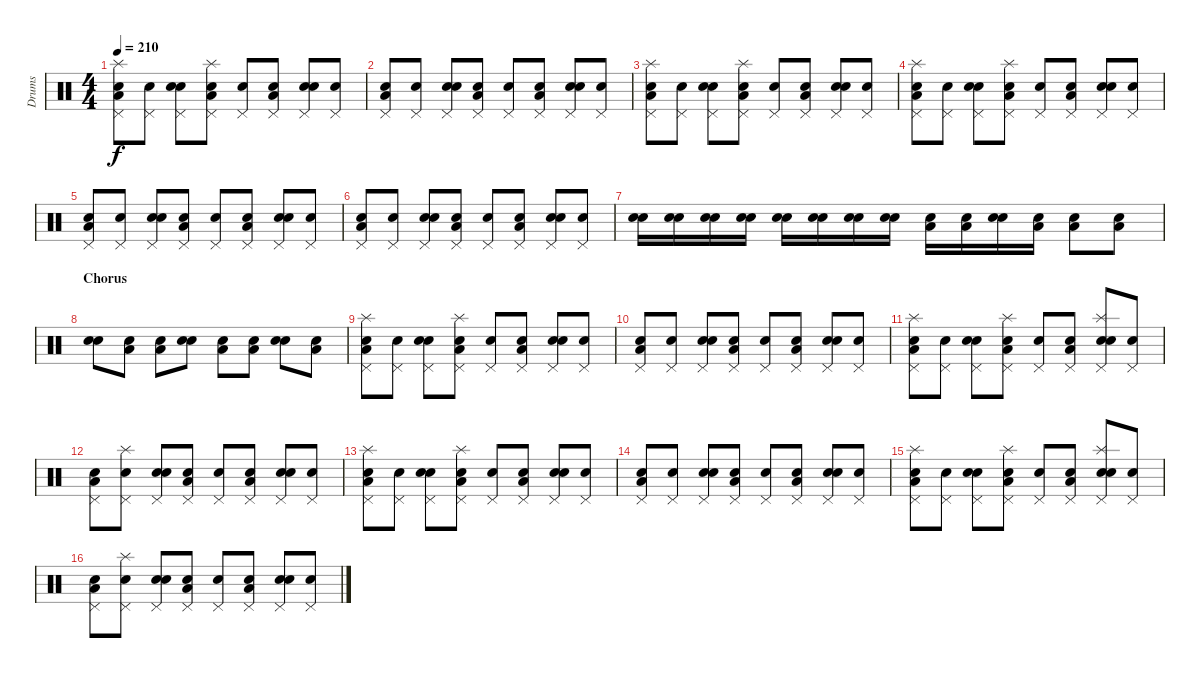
\track ("Drums" "Drums") {instrument percussion}
\staff {score}
\articulation defaults
\ts (4 4)
\tempo 210
\clef neutral
\ks c
("Snare (hit)" "Low Floor Tom (hit)" "Pedal Hi-Hat (hit)" "Splash (hit)").8{dy f} ("Snare (hit)" "Pedal Hi-Hat (hit)").8 ("Snare (hit)" "Electric Snare (hit)" "Pedal Hi-Hat (hit)").8 ("Snare (hit)" "Low Floor Tom (hit)" "Pedal Hi-Hat (hit)" "Splash (hit)").8 ("Snare (hit)" "Pedal Hi-Hat (hit)").8 ("Snare (hit)" "Low Floor Tom (hit)" "Pedal Hi-Hat (hit)").8 ("Snare (hit)" "Electric Snare (hit)" "Pedal Hi-Hat (hit)").8 ("Snare (hit)" "Pedal Hi-Hat (hit)").8 |
("Snare (hit)" "Low Floor Tom (hit)" "Pedal Hi-Hat (hit)").8 ("Snare (hit)" "Pedal Hi-Hat (hit)").8 ("Snare (hit)" "Electric Snare (hit)" "Pedal Hi-Hat (hit)").8 ("Snare (hit)" "Low Floor Tom (hit)" "Pedal Hi-Hat (hit)").8 ("Snare (hit)" "Pedal Hi-Hat (hit)").8 ("Snare (hit)" "Low Floor Tom (hit)" "Pedal Hi-Hat (hit)").8 ("Snare (hit)" "Electric Snare (hit)" "Pedal Hi-Hat (hit)").8 ("Snare (hit)" "Pedal Hi-Hat (hit)").8 |
("Snare (hit)" "Low Floor Tom (hit)" "Pedal Hi-Hat (hit)" "Splash (hit)").8 ("Snare (hit)" "Pedal Hi-Hat (hit)").8 ("Snare (hit)" "Electric Snare (hit)" "Pedal Hi-Hat (hit)").8 ("Snare (hit)" "Low Floor Tom (hit)" "Pedal Hi-Hat (hit)" "Splash (hit)").8 ("Snare (hit)" "Pedal Hi-Hat (hit)").8 ("Snare (hit)" "Low Floor Tom (hit)" "Pedal Hi-Hat (hit)").8 ("Snare (hit)" "Electric Snare (hit)" "Pedal Hi-Hat (hit)").8 ("Snare (hit)" "Pedal Hi-Hat (hit)").8 |
("Snare (hit)" "Low Floor Tom (hit)" "Pedal Hi-Hat (hit)" "Splash (hit)").8 ("Snare (hit)" "Pedal Hi-Hat (hit)").8 ("Snare (hit)" "Electric Snare (hit)" "Pedal Hi-Hat (hit)").8 ("Snare (hit)" "Low Floor Tom (hit)" "Pedal Hi-Hat (hit)" "Splash (hit)").8 ("Snare (hit)" "Pedal Hi-Hat (hit)").8 ("Snare (hit)" "Low Floor Tom (hit)" "Pedal Hi-Hat (hit)").8 ("Snare (hit)" "Electric Snare (hit)" "Pedal Hi-Hat (hit)").8 ("Snare (hit)" "Pedal Hi-Hat (hit)").8 |
("Snare (hit)" "Low Floor Tom (hit)" "Pedal Hi-Hat (hit)").8 ("Snare (hit)" "Pedal Hi-Hat (hit)").8 ("Snare (hit)" "Electric Snare (hit)" "Pedal Hi-Hat (hit)").8 ("Snare (hit)" "Low Floor Tom (hit)" "Pedal Hi-Hat (hit)").8 ("Snare (hit)" "Pedal Hi-Hat (hit)").8 ("Snare (hit)" "Low Floor Tom (hit)" "Pedal Hi-Hat (hit)").8 ("Snare (hit)" "Electric Snare (hit)" "Pedal Hi-Hat (hit)").8 ("Snare (hit)" "Pedal Hi-Hat (hit)").8 |
("Snare (hit)" "Low Floor Tom (hit)" "Pedal Hi-Hat (hit)").8 ("Snare (hit)" "Pedal Hi-Hat (hit)").8 ("Snare (hit)" "Electric Snare (hit)" "Pedal Hi-Hat (hit)").8 ("Snare (hit)" "Low Floor Tom (hit)" "Pedal Hi-Hat (hit)").8 ("Snare (hit)" "Pedal Hi-Hat (hit)").8 ("Snare (hit)" "Low Floor Tom (hit)" "Pedal Hi-Hat (hit)").8 ("Snare (hit)" "Electric Snare (hit)" "Pedal Hi-Hat (hit)").8 ("Snare (hit)" "Pedal Hi-Hat (hit)").8 |
("Snare (hit)" "Electric Snare (hit)").16 ("Snare (hit)" "Electric Snare (hit)").16 ("Snare (hit)" "Electric Snare (hit)").16 ("Snare (hit)" "Electric Snare (hit)").16 ("Snare (hit)" "Electric Snare (hit)").16 ("Snare (hit)" "Electric Snare (hit)").16 ("Snare (hit)" "Electric Snare (hit)").16 ("Snare (hit)" "Electric Snare (hit)").16 ("Snare (hit)" "Low Floor Tom (hit)").16 ("Snare (hit)" "Low Floor Tom (hit)").16 ("Snare (hit)" "Electric Snare (hit)").16 ("Snare (hit)" "Low Floor Tom (hit)").16 ("Snare (hit)" "Low Floor Tom (hit)").8 ("Snare (hit)" "Low Floor Tom (hit)").8 |
\section ("" "Chorus")
("Snare (hit)" "Electric Snare (hit)").8 ("Snare (hit)" "Low Floor Tom (hit)").8 ("Snare (hit)" "Low Floor Tom (hit)").8 ("Snare (hit)" "Electric Snare (hit)").8 ("Snare (hit)" "Low Floor Tom (hit)").8 ("Snare (hit)" "Low Floor Tom (hit)").8 ("Snare (hit)" "Electric Snare (hit)").8 ("Snare (hit)" "Low Floor Tom (hit)").8 |
("Snare (hit)" "Low Floor Tom (hit)" "Pedal Hi-Hat (hit)" "Splash (hit)").8 ("Snare (hit)" "Pedal Hi-Hat (hit)").8 ("Snare (hit)" "Electric Snare (hit)" "Pedal Hi-Hat (hit)").8 ("Snare (hit)" "Low Floor Tom (hit)" "Pedal Hi-Hat (hit)" "Splash (hit)").8 ("Snare (hit)" "Pedal Hi-Hat (hit)").8 ("Snare (hit)" "Low Floor Tom (hit)" "Pedal Hi-Hat (hit)").8 ("Snare (hit)" "Electric Snare (hit)" "Pedal Hi-Hat (hit)").8 ("Snare (hit)" "Pedal Hi-Hat (hit)").8 |
("Snare (hit)" "Low Floor Tom (hit)" "Pedal Hi-Hat (hit)").8 ("Snare (hit)" "Pedal Hi-Hat (hit)").8 ("Snare (hit)" "Electric Snare (hit)" "Pedal Hi-Hat (hit)").8 ("Snare (hit)" "Low Floor Tom (hit)" "Pedal Hi-Hat (hit)").8 ("Snare (hit)" "Pedal Hi-Hat (hit)").8 ("Snare (hit)" "Low Floor Tom (hit)" "Pedal Hi-Hat (hit)").8 ("Snare (hit)" "Electric Snare (hit)" "Pedal Hi-Hat (hit)").8 ("Snare (hit)" "Pedal Hi-Hat (hit)").8 |
("Snare (hit)" "Low Floor Tom (hit)" "Pedal Hi-Hat (hit)" "Splash (hit)").8 ("Snare (hit)" "Pedal Hi-Hat (hit)").8 ("Snare (hit)" "Electric Snare (hit)" "Pedal Hi-Hat (hit)").8 ("Snare (hit)" "Low Floor Tom (hit)" "Pedal Hi-Hat (hit)" "Splash (hit)").8 ("Snare (hit)" "Pedal Hi-Hat (hit)").8 ("Snare (hit)" "Low Floor Tom (hit)" "Pedal Hi-Hat (hit)").8 ("Snare (hit)" "Electric Snare (hit)" "Pedal Hi-Hat (hit)" "Splash (hit)").8 ("Snare (hit)" "Pedal Hi-Hat (hit)").8 |
("Snare (hit)" "Low Floor Tom (hit)" "Pedal Hi-Hat (hit)").8 ("Snare (hit)" "Pedal Hi-Hat (hit)" "Splash (hit)").8 ("Snare (hit)" "Electric Snare (hit)" "Pedal Hi-Hat (hit)").8 ("Snare (hit)" "Low Floor Tom (hit)" "Pedal Hi-Hat (hit)").8 ("Snare (hit)" "Pedal Hi-Hat (hit)").8 ("Snare (hit)" "Low Floor Tom (hit)" "Pedal Hi-Hat (hit)").8 ("Snare (hit)" "Electric Snare (hit)" "Pedal Hi-Hat (hit)").8 ("Snare (hit)" "Pedal Hi-Hat (hit)").8 |
("Snare (hit)" "Low Floor Tom (hit)" "Pedal Hi-Hat (hit)" "Splash (hit)").8 ("Snare (hit)" "Pedal Hi-Hat (hit)").8 ("Snare (hit)" "Electric Snare (hit)" "Pedal Hi-Hat (hit)").8 ("Snare (hit)" "Low Floor Tom (hit)" "Pedal Hi-Hat (hit)" "Splash (hit)").8 ("Snare (hit)" "Pedal Hi-Hat (hit)").8 ("Snare (hit)" "Low Floor Tom (hit)" "Pedal Hi-Hat (hit)").8 ("Snare (hit)" "Electric Snare (hit)" "Pedal Hi-Hat (hit)").8 ("Snare (hit)" "Pedal Hi-Hat (hit)").8 |
("Snare (hit)" "Low Floor Tom (hit)" "Pedal Hi-Hat (hit)").8 ("Snare (hit)" "Pedal Hi-Hat (hit)").8 ("Snare (hit)" "Electric Snare (hit)" "Pedal Hi-Hat (hit)").8 ("Snare (hit)" "Low Floor Tom (hit)" "Pedal Hi-Hat (hit)").8 ("Snare (hit)" "Pedal Hi-Hat (hit)").8 ("Snare (hit)" "Low Floor Tom (hit)" "Pedal Hi-Hat (hit)").8 ("Snare (hit)" "Electric Snare (hit)" "Pedal Hi-Hat (hit)").8 ("Snare (hit)" "Pedal Hi-Hat (hit)").8 |
("Snare (hit)" "Low Floor Tom (hit)" "Pedal Hi-Hat (hit)" "Splash (hit)").8 ("Snare (hit)" "Pedal Hi-Hat (hit)").8 ("Snare (hit)" "Electric Snare (hit)" "Pedal Hi-Hat (hit)").8 ("Snare (hit)" "Low Floor Tom (hit)" "Pedal Hi-Hat (hit)" "Splash (hit)").8 ("Snare (hit)" "Pedal Hi-Hat (hit)").8 ("Snare (hit)" "Low Floor Tom (hit)" "Pedal Hi-Hat (hit)").8 ("Snare (hit)" "Electric Snare (hit)" "Pedal Hi-Hat (hit)" "Splash (hit)").8 ("Snare (hit)" "Pedal Hi-Hat (hit)").8 |
("Snare (hit)" "Low Floor Tom (hit)" "Pedal Hi-Hat (hit)").8 ("Snare (hit)" "Pedal Hi-Hat (hit)" "Splash (hit)").8 ("Snare (hit)" "Electric Snare (hit)" "Pedal Hi-Hat (hit)").8 ("Snare (hit)" "Low Floor Tom (hit)" "Pedal Hi-Hat (hit)").8 ("Snare (hit)" "Pedal Hi-Hat (hit)").8 ("Snare (hit)" "Low Floor Tom (hit)" "Pedal Hi-Hat (hit)").8 ("Snare (hit)" "Electric Snare (hit)" "Pedal Hi-Hat (hit)").8 ("Snare (hit)" "Pedal Hi-Hat (hit)").8
